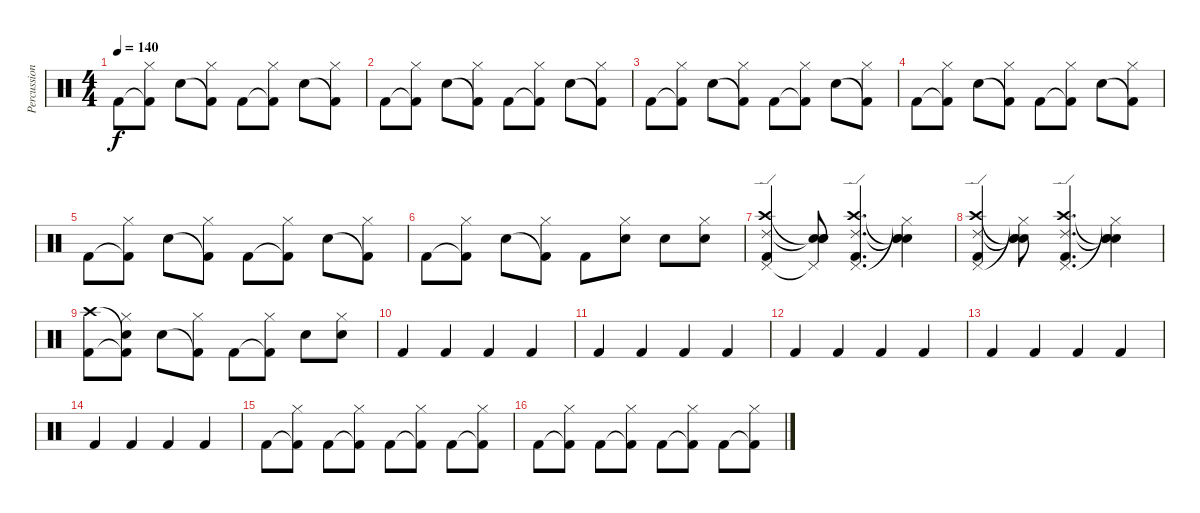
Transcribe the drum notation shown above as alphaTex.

\track ("Percussion" "Percussion") {instrument percussion}
\staff {score}
\articulation defaults
\ts (4 4)
\tempo 140
\clef neutral
\ks c "Kick (hit) 2".8{dy f}
("Kick (hit) 2"{t} "Hi-Hat (closed)").8 "Snare (hit) 2".8 ("Kick (hit) 2"{t} "Hi-Hat (closed)").8 "Kick (hit) 2".8 ("Kick (hit) 2"{t} "Hi-Hat (closed)").8 "Snare (hit) 2".8 ("Kick (hit) 2"{t} "Hi-Hat (closed)").8 |
"Kick (hit) 2".8 ("Kick (hit) 2"{t} "Hi-Hat (closed)").8 "Snare (hit) 2".8 ("Kick (hit) 2"{t} "Hi-Hat (closed)").8 "Kick (hit) 2".8 ("Kick (hit) 2"{t} "Hi-Hat (closed)").8 "Snare (hit) 2".8 ("Kick (hit) 2"{t} "Hi-Hat (closed)").8 |
"Kick (hit) 2".8 ("Kick (hit) 2"{t} "Hi-Hat (closed)").8 "Snare (hit) 2".8 ("Kick (hit) 2"{t} "Hi-Hat (closed)").8 "Kick (hit) 2".8 ("Kick (hit) 2"{t} "Hi-Hat (closed)").8 "Snare (hit) 2".8 ("Kick (hit) 2"{t} "Hi-Hat (closed)").8 |
"Kick (hit) 2".8 ("Kick (hit) 2"{t} "Hi-Hat (closed)").8 "Snare (hit) 2".8 ("Kick (hit) 2"{t} "Hi-Hat (closed)").8 "Kick (hit) 2".8 ("Kick (hit) 2"{t} "Hi-Hat (closed)").8 "Snare (hit) 2".8 ("Kick (hit) 2"{t} "Hi-Hat (closed)").8 |
"Kick (hit) 2".8 ("Kick (hit) 2"{t} "Hi-Hat (closed)").8 "Snare (hit) 2".8 ("Kick (hit) 2"{t} "Hi-Hat (closed)").8 "Kick (hit) 2".8 ("Kick (hit) 2"{t} "Hi-Hat (closed)").8 "Snare (hit) 2".8 ("Kick (hit) 2"{t} "Hi-Hat (closed)").8 |
"Kick (hit) 2".8 ("Kick (hit) 2"{t} "Hi-Hat (closed)").8 "Snare (hit) 2".8 ("Kick (hit) 2"{t} "Hi-Hat (closed)").8 "Kick (hit) 2".8 ("Snare (hit) 2" "Hi-Hat (closed)").8 "Snare (hit) 2".8 ("Snare (hit) 2" "Hi-Hat (closed)").8 |
("Kick (hit) 2" "Crash high (hit)" "Ride (edge) 2" "Pedal Hi-Hat (hit)").4 ("Snare (hit) 2" "Snare (hit)"{t} "Snare (hit)"{t} "Pedal Hi-Hat (hit)"{t}).8 ("Kick (hit) 2" "Crash high (hit)" "Ride (edge) 2" "Pedal Hi-Hat (hit)").4{d} ("Snare (hit) 2" "Snare (hit)"{t} "Snare (hit)"{t} "Hi-Hat (closed)"{t}).4 |
("Kick (hit) 2" "Crash high (hit)" "Ride (edge) 2" "Pedal Hi-Hat (hit)").4 ("Snare (hit) 2" "Snare (hit)"{t} "Snare (hit)"{t} "Hi-Hat (closed)"{t}).8 ("Kick (hit) 2" "Crash high (hit)" "Ride (edge) 2" "Pedal Hi-Hat (hit)").4{d} ("Snare (hit) 2" "Snare (hit)"{t} "Snare (hit)"{t} "Hi-Hat (closed)"{t}).4 |
("Kick (hit) 2" "Crash high (hit)").8 ("Kick (hit) 2"{t} "Snare (hit)"{t} "Hi-Hat (closed)").8 "Snare (hit) 2".8 ("Kick (hit) 2"{t} "Hi-Hat (closed)").8 "Kick (hit) 2".8 ("Kick (hit) 2"{t} "Hi-Hat (closed)").8 "Snare (hit) 2".8 ("Snare (hit) 2" "Hi-Hat (closed)").8 |
"Kick (hit) 2".4 "Kick (hit) 2".4 "Kick (hit) 2".4 "Kick (hit) 2".4 |
"Kick (hit) 2".4 "Kick (hit) 2".4 "Kick (hit) 2".4 "Kick (hit) 2".4 |
"Kick (hit) 2".4 "Kick (hit) 2".4 "Kick (hit) 2".4 "Kick (hit) 2".4 |
"Kick (hit) 2".4 "Kick (hit) 2".4 "Kick (hit) 2".4 "Kick (hit) 2".4 |
"Kick (hit) 2".4 "Kick (hit) 2".4 "Kick (hit) 2".4 "Kick (hit) 2".4 |
"Kick (hit) 2".8 ("Kick (hit) 2"{t} "Hi-Hat (closed)").8 "Kick (hit) 2".8 ("Kick (hit) 2"{t} "Hi-Hat (closed)").8 "Kick (hit) 2".8 ("Kick (hit) 2"{t} "Hi-Hat (closed)").8 "Kick (hit) 2".8 ("Kick (hit) 2"{t} "Hi-Hat (closed)").8 |
"Kick (hit) 2".8 ("Kick (hit) 2"{t} "Hi-Hat (closed)").8 "Kick (hit) 2".8 ("Kick (hit) 2"{t} "Hi-Hat (closed)").8 "Kick (hit) 2".8 ("Kick (hit) 2"{t} "Hi-Hat (closed)").8 "Kick (hit) 2".8 ("Kick (hit) 2"{t} "Hi-Hat (closed)").8
